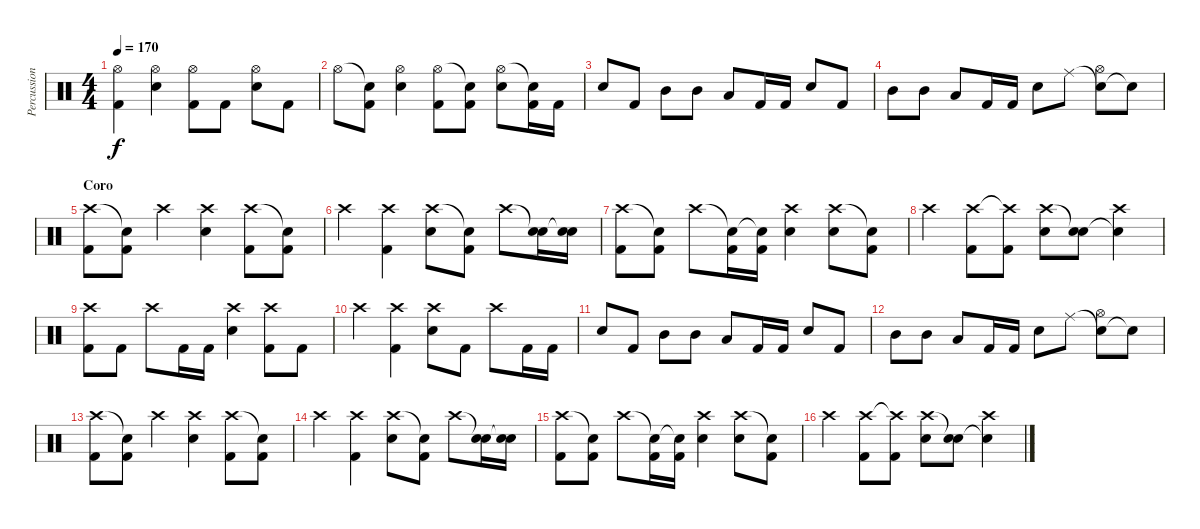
\track ("Percussion" "Percussion") {instrument percussion}
\staff {score}
\articulation defaults
\ts (4 4)
\tempo 170
\clef neutral
\ks c
("Hi-Hat (open)" "Kick (hit) 2").4{dy f} ("Hi-Hat (open)" "Electric Snare (hit)").4 ("Hi-Hat (open)" "Kick (hit) 2").8 "Kick (hit) 2".8 ("Hi-Hat (open)" "Electric Snare (hit)").8 "Kick (hit) 2".8 |
"Hi-Hat (open)".8 ("Snare (hit)"{t} "Kick (hit) 2").8 ("Hi-Hat (open)" "Electric Snare (hit)").4 ("Hi-Hat (open)" "Kick (hit) 2").8 ("Snare (hit)"{t} "Kick (hit) 2").8 ("Hi-Hat (open)" "Electric Snare (hit)").8 ("Snare (hit)"{t} "Kick (hit) 2").16 "Kick (hit) 2".16 |
"Electric Snare (hit)".8 "Kick (hit) 2".8 "Mid Tom (hit)".8 "Mid Tom (hit)".8 "Low Tom (hit)".8 "Kick (hit) 2".16 "Kick (hit) 2".16 "Electric Snare (hit)".8 "Kick (hit) 2".8 |
"Mid Tom (hit)".8 "Mid Tom (hit)".8 "Low Tom (hit)".8 "Kick (hit) 2".16 "Kick (hit) 2".16 "Electric Snare (hit)".8 "Ride (middle)".8 ("Snare (hit)"{t} "Hi-Hat (open)").8 "Snare (hit)"{t}.8 |
\section ("" "Coro")
("Crash high (hit)" "Kick (hit) 2").8 ("Snare (hit)"{t} "Kick (hit) 2").8 "Crash high (hit)".4 ("Crash high (hit)" "Electric Snare (hit)").4 ("Crash high (hit)" "Kick (hit) 2").8 ("Snare (hit)"{t} "Kick (hit) 2").8 |
"Crash high (hit)".4 ("Crash high (hit)" "Kick (hit) 2").4 ("Crash high (hit)" "Electric Snare (hit)").8 ("Snare (hit)"{t} "Kick (hit) 2").8 "Crash high (hit)".8 ("Snare (hit)"{t} "Electric Snare (hit)").16 ("Snare (hit)"{t} "Electric Snare (hit)").16 |
("Crash high (hit)" "Kick (hit) 2").8 ("Snare (hit)"{t} "Kick (hit) 2").8 "Crash high (hit)".8 ("Snare (hit)"{t} "Kick (hit) 2").16 ("Snare (hit)"{t} "Kick (hit) 2").16 ("Crash high (hit)" "Electric Snare (hit)").4 ("Crash high (hit)" "Electric Snare (hit)").8 ("Snare (hit)"{t} "Kick (hit) 2").8 |
"Crash high (hit)".4 ("Crash high (hit)" "Kick (hit) 2").8 ("Crash high (hit)"{t} "Kick (hit) 2").8 ("Crash high (hit)" "Electric Snare (hit)").8 ("Snare (hit)"{t} "Electric Snare (hit)").8 ("Crash high (hit)" "Snare (hit)"{t}).4 |
("Crash high (hit)" "Kick (hit) 2").8 "Kick (hit) 2".8 "Crash high (hit)".8 "Kick (hit) 2".16 "Kick (hit) 2".16 ("Crash high (hit)" "Electric Snare (hit)").4 ("Crash high (hit)" "Kick (hit) 2").8 "Kick (hit) 2".8 |
"Crash high (hit)".4 ("Crash high (hit)" "Kick (hit) 2").4 ("Crash high (hit)" "Electric Snare (hit)").8 "Kick (hit) 2".8 "Crash high (hit)".8 "Kick (hit) 2".16 "Kick (hit) 2".16 |
"Electric Snare (hit)".8 "Kick (hit) 2".8 "Mid Tom (hit)".8 "Mid Tom (hit)".8 "Low Tom (hit)".8 "Kick (hit) 2".16 "Kick (hit) 2".16 "Electric Snare (hit)".8 "Kick (hit) 2".8 |
"Mid Tom (hit)".8 "Mid Tom (hit)".8 "Low Tom (hit)".8 "Kick (hit) 2".16 "Kick (hit) 2".16 "Electric Snare (hit)".8 "Ride (middle)".8 ("Snare (hit)"{t} "Hi-Hat (open)").8 "Snare (hit)"{t}.8 |
("Crash high (hit)" "Kick (hit) 2").8 ("Snare (hit)"{t} "Kick (hit) 2").8 "Crash high (hit)".4 ("Crash high (hit)" "Electric Snare (hit)").4 ("Crash high (hit)" "Kick (hit) 2").8 ("Snare (hit)"{t} "Kick (hit) 2").8 |
"Crash high (hit)".4 ("Crash high (hit)" "Kick (hit) 2").4 ("Crash high (hit)" "Electric Snare (hit)").8 ("Snare (hit)"{t} "Kick (hit) 2").8 "Crash high (hit)".8 ("Snare (hit)"{t} "Electric Snare (hit)").16 ("Snare (hit)"{t} "Electric Snare (hit)").16 |
("Crash high (hit)" "Kick (hit) 2").8 ("Snare (hit)"{t} "Kick (hit) 2").8 "Crash high (hit)".8 ("Snare (hit)"{t} "Kick (hit) 2").16 ("Snare (hit)"{t} "Kick (hit) 2").16 ("Crash high (hit)" "Electric Snare (hit)").4 ("Crash high (hit)" "Electric Snare (hit)").8 ("Snare (hit)"{t} "Kick (hit) 2").8 |
"Crash high (hit)".4 ("Crash high (hit)" "Kick (hit) 2").8 ("Crash high (hit)"{t} "Kick (hit) 2").8 ("Crash high (hit)" "Electric Snare (hit)").8 ("Snare (hit)"{t} "Electric Snare (hit)").8 ("Crash high (hit)" "Snare (hit)"{t}).4
